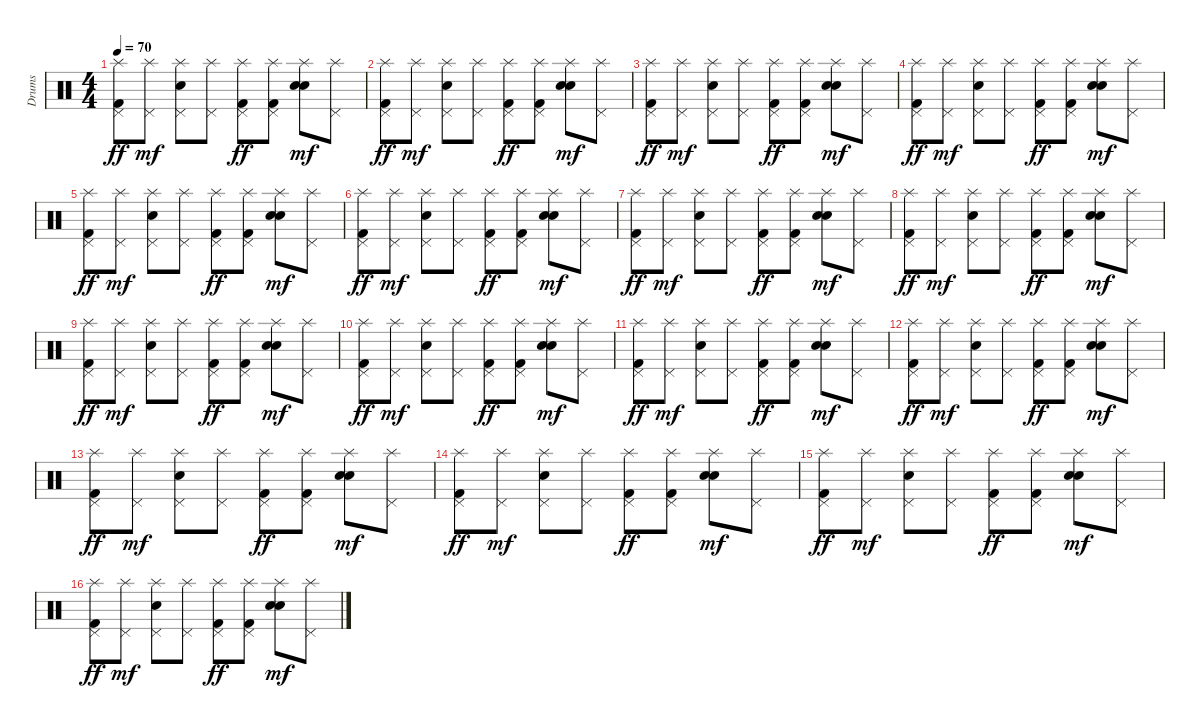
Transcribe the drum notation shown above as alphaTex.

\track ("Drums" "Drums") {instrument percussion}
\staff {score}
\articulation defaults
\ts (4 4)
\tempo 70
\clef neutral
\ks c
("Splash (hit)" "Pedal Hi-Hat (hit)" "Kick (hit) 2").8{dy ff} ("Splash (hit)" "Pedal Hi-Hat (hit)").8{dy mf} ("Splash (hit)" "Pedal Hi-Hat (hit)" "Snare (hit) 2").8 ("Splash (hit)" "Pedal Hi-Hat (hit)").8 ("Splash (hit)" "Pedal Hi-Hat (hit)" "Kick (hit) 2").8{dy ff} ("Splash (hit)" "Pedal Hi-Hat (hit)" "Kick (hit) 2").8 ("Splash (hit)" "Electric Snare (hit)" "Snare (hit) 2").8{dy mf} ("Splash (hit)" "Pedal Hi-Hat (hit)").8 |
("Splash (hit)" "Pedal Hi-Hat (hit)" "Kick (hit) 2").8{dy ff} ("Splash (hit)" "Pedal Hi-Hat (hit)").8{dy mf} ("Splash (hit)" "Pedal Hi-Hat (hit)" "Snare (hit) 2").8 ("Splash (hit)" "Pedal Hi-Hat (hit)").8 ("Splash (hit)" "Pedal Hi-Hat (hit)" "Kick (hit) 2").8{dy ff} ("Splash (hit)" "Pedal Hi-Hat (hit)" "Kick (hit) 2").8 ("Splash (hit)" "Electric Snare (hit)" "Snare (hit) 2").8{dy mf} ("Splash (hit)" "Pedal Hi-Hat (hit)").8 |
("Splash (hit)" "Pedal Hi-Hat (hit)" "Kick (hit) 2").8{dy ff} ("Splash (hit)" "Pedal Hi-Hat (hit)").8{dy mf} ("Splash (hit)" "Pedal Hi-Hat (hit)" "Snare (hit) 2").8 ("Splash (hit)" "Pedal Hi-Hat (hit)").8 ("Splash (hit)" "Pedal Hi-Hat (hit)" "Kick (hit) 2").8{dy ff} ("Splash (hit)" "Pedal Hi-Hat (hit)" "Kick (hit) 2").8 ("Splash (hit)" "Electric Snare (hit)" "Snare (hit) 2").8{dy mf} ("Splash (hit)" "Pedal Hi-Hat (hit)").8 |
("Splash (hit)" "Pedal Hi-Hat (hit)" "Kick (hit) 2").8{dy ff} ("Splash (hit)" "Pedal Hi-Hat (hit)").8{dy mf} ("Splash (hit)" "Pedal Hi-Hat (hit)" "Snare (hit) 2").8 ("Splash (hit)" "Pedal Hi-Hat (hit)").8 ("Splash (hit)" "Pedal Hi-Hat (hit)" "Kick (hit) 2").8{dy ff} ("Splash (hit)" "Pedal Hi-Hat (hit)" "Kick (hit) 2").8 ("Splash (hit)" "Electric Snare (hit)" "Snare (hit) 2").8{dy mf} ("Splash (hit)" "Pedal Hi-Hat (hit)").8 |
("Splash (hit)" "Pedal Hi-Hat (hit)" "Kick (hit) 2").8{dy ff} ("Splash (hit)" "Pedal Hi-Hat (hit)").8{dy mf} ("Splash (hit)" "Pedal Hi-Hat (hit)" "Snare (hit) 2").8 ("Splash (hit)" "Pedal Hi-Hat (hit)").8 ("Splash (hit)" "Pedal Hi-Hat (hit)" "Kick (hit) 2").8{dy ff} ("Splash (hit)" "Pedal Hi-Hat (hit)" "Kick (hit) 2").8 ("Splash (hit)" "Electric Snare (hit)" "Snare (hit) 2").8{dy mf} ("Splash (hit)" "Pedal Hi-Hat (hit)").8 |
("Splash (hit)" "Pedal Hi-Hat (hit)" "Kick (hit) 2").8{dy ff} ("Splash (hit)" "Pedal Hi-Hat (hit)").8{dy mf} ("Splash (hit)" "Pedal Hi-Hat (hit)" "Snare (hit) 2").8 ("Splash (hit)" "Pedal Hi-Hat (hit)").8 ("Splash (hit)" "Pedal Hi-Hat (hit)" "Kick (hit) 2").8{dy ff} ("Splash (hit)" "Pedal Hi-Hat (hit)" "Kick (hit) 2").8 ("Splash (hit)" "Electric Snare (hit)" "Snare (hit) 2").8{dy mf} ("Splash (hit)" "Pedal Hi-Hat (hit)").8 |
("Splash (hit)" "Pedal Hi-Hat (hit)" "Kick (hit) 2").8{dy ff} ("Splash (hit)" "Pedal Hi-Hat (hit)").8{dy mf} ("Splash (hit)" "Pedal Hi-Hat (hit)" "Snare (hit) 2").8 ("Splash (hit)" "Pedal Hi-Hat (hit)").8 ("Splash (hit)" "Pedal Hi-Hat (hit)" "Kick (hit) 2").8{dy ff} ("Splash (hit)" "Pedal Hi-Hat (hit)" "Kick (hit) 2").8 ("Splash (hit)" "Electric Snare (hit)" "Snare (hit) 2").8{dy mf} ("Splash (hit)" "Pedal Hi-Hat (hit)").8 |
("Splash (hit)" "Pedal Hi-Hat (hit)" "Kick (hit) 2").8{dy ff} ("Splash (hit)" "Pedal Hi-Hat (hit)").8{dy mf} ("Splash (hit)" "Pedal Hi-Hat (hit)" "Snare (hit) 2").8 ("Splash (hit)" "Pedal Hi-Hat (hit)").8 ("Splash (hit)" "Pedal Hi-Hat (hit)" "Kick (hit) 2").8{dy ff} ("Splash (hit)" "Pedal Hi-Hat (hit)" "Kick (hit) 2").8 ("Splash (hit)" "Electric Snare (hit)" "Snare (hit) 2").8{dy mf} ("Splash (hit)" "Pedal Hi-Hat (hit)").8 |
("Splash (hit)" "Pedal Hi-Hat (hit)" "Kick (hit) 2").8{dy ff} ("Splash (hit)" "Pedal Hi-Hat (hit)").8{dy mf} ("Splash (hit)" "Pedal Hi-Hat (hit)" "Snare (hit) 2").8 ("Splash (hit)" "Pedal Hi-Hat (hit)").8 ("Splash (hit)" "Pedal Hi-Hat (hit)" "Kick (hit) 2").8{dy ff} ("Splash (hit)" "Pedal Hi-Hat (hit)" "Kick (hit) 2").8 ("Splash (hit)" "Electric Snare (hit)" "Snare (hit) 2").8{dy mf} ("Splash (hit)" "Pedal Hi-Hat (hit)").8 |
("Splash (hit)" "Pedal Hi-Hat (hit)" "Kick (hit) 2").8{dy ff} ("Splash (hit)" "Pedal Hi-Hat (hit)").8{dy mf} ("Splash (hit)" "Pedal Hi-Hat (hit)" "Snare (hit) 2").8 ("Splash (hit)" "Pedal Hi-Hat (hit)").8 ("Splash (hit)" "Pedal Hi-Hat (hit)" "Kick (hit) 2").8{dy ff} ("Splash (hit)" "Pedal Hi-Hat (hit)" "Kick (hit) 2").8 ("Splash (hit)" "Electric Snare (hit)" "Snare (hit) 2").8{dy mf} ("Splash (hit)" "Pedal Hi-Hat (hit)").8 |
("Splash (hit)" "Pedal Hi-Hat (hit)" "Kick (hit) 2").8{dy ff} ("Splash (hit)" "Pedal Hi-Hat (hit)").8{dy mf} ("Splash (hit)" "Pedal Hi-Hat (hit)" "Snare (hit) 2").8 ("Splash (hit)" "Pedal Hi-Hat (hit)").8 ("Splash (hit)" "Pedal Hi-Hat (hit)" "Kick (hit) 2").8{dy ff} ("Splash (hit)" "Pedal Hi-Hat (hit)" "Kick (hit) 2").8 ("Splash (hit)" "Electric Snare (hit)" "Snare (hit) 2").8{dy mf} ("Splash (hit)" "Pedal Hi-Hat (hit)").8 |
("Splash (hit)" "Pedal Hi-Hat (hit)" "Kick (hit) 2").8{dy ff} ("Splash (hit)" "Pedal Hi-Hat (hit)").8{dy mf} ("Splash (hit)" "Pedal Hi-Hat (hit)" "Snare (hit) 2").8 ("Splash (hit)" "Pedal Hi-Hat (hit)").8 ("Splash (hit)" "Pedal Hi-Hat (hit)" "Kick (hit) 2").8{dy ff} ("Splash (hit)" "Pedal Hi-Hat (hit)" "Kick (hit) 2").8 ("Splash (hit)" "Electric Snare (hit)" "Snare (hit) 2").8{dy mf} ("Splash (hit)" "Pedal Hi-Hat (hit)").8 |
("Splash (hit)" "Pedal Hi-Hat (hit)" "Kick (hit) 2").8{dy ff} ("Splash (hit)" "Pedal Hi-Hat (hit)").8{dy mf} ("Splash (hit)" "Pedal Hi-Hat (hit)" "Snare (hit) 2").8 ("Splash (hit)" "Pedal Hi-Hat (hit)").8 ("Splash (hit)" "Pedal Hi-Hat (hit)" "Kick (hit) 2").8{dy ff} ("Splash (hit)" "Pedal Hi-Hat (hit)" "Kick (hit) 2").8 ("Splash (hit)" "Electric Snare (hit)" "Snare (hit) 2").8{dy mf} ("Splash (hit)" "Pedal Hi-Hat (hit)").8 |
("Splash (hit)" "Pedal Hi-Hat (hit)" "Kick (hit) 2").8{dy ff} ("Splash (hit)" "Pedal Hi-Hat (hit)").8{dy mf} ("Splash (hit)" "Pedal Hi-Hat (hit)" "Snare (hit) 2").8 ("Splash (hit)" "Pedal Hi-Hat (hit)").8 ("Splash (hit)" "Pedal Hi-Hat (hit)" "Kick (hit) 2").8{dy ff} ("Splash (hit)" "Pedal Hi-Hat (hit)" "Kick (hit) 2").8 ("Splash (hit)" "Electric Snare (hit)" "Snare (hit) 2").8{dy mf} ("Splash (hit)" "Pedal Hi-Hat (hit)").8 |
("Splash (hit)" "Pedal Hi-Hat (hit)" "Kick (hit) 2").8{dy ff} ("Splash (hit)" "Pedal Hi-Hat (hit)").8{dy mf} ("Splash (hit)" "Pedal Hi-Hat (hit)" "Snare (hit) 2").8 ("Splash (hit)" "Pedal Hi-Hat (hit)").8 ("Splash (hit)" "Pedal Hi-Hat (hit)" "Kick (hit) 2").8{dy ff} ("Splash (hit)" "Pedal Hi-Hat (hit)" "Kick (hit) 2").8 ("Splash (hit)" "Electric Snare (hit)" "Snare (hit) 2").8{dy mf} ("Splash (hit)" "Pedal Hi-Hat (hit)").8 |
("Splash (hit)" "Pedal Hi-Hat (hit)" "Kick (hit) 2").8{dy ff} ("Splash (hit)" "Pedal Hi-Hat (hit)").8{dy mf} ("Splash (hit)" "Pedal Hi-Hat (hit)" "Snare (hit) 2").8 ("Splash (hit)" "Pedal Hi-Hat (hit)").8 ("Splash (hit)" "Pedal Hi-Hat (hit)" "Kick (hit) 2").8{dy ff} ("Splash (hit)" "Pedal Hi-Hat (hit)" "Kick (hit) 2").8 ("Splash (hit)" "Electric Snare (hit)" "Snare (hit) 2").8{dy mf} ("Splash (hit)" "Pedal Hi-Hat (hit)").8
